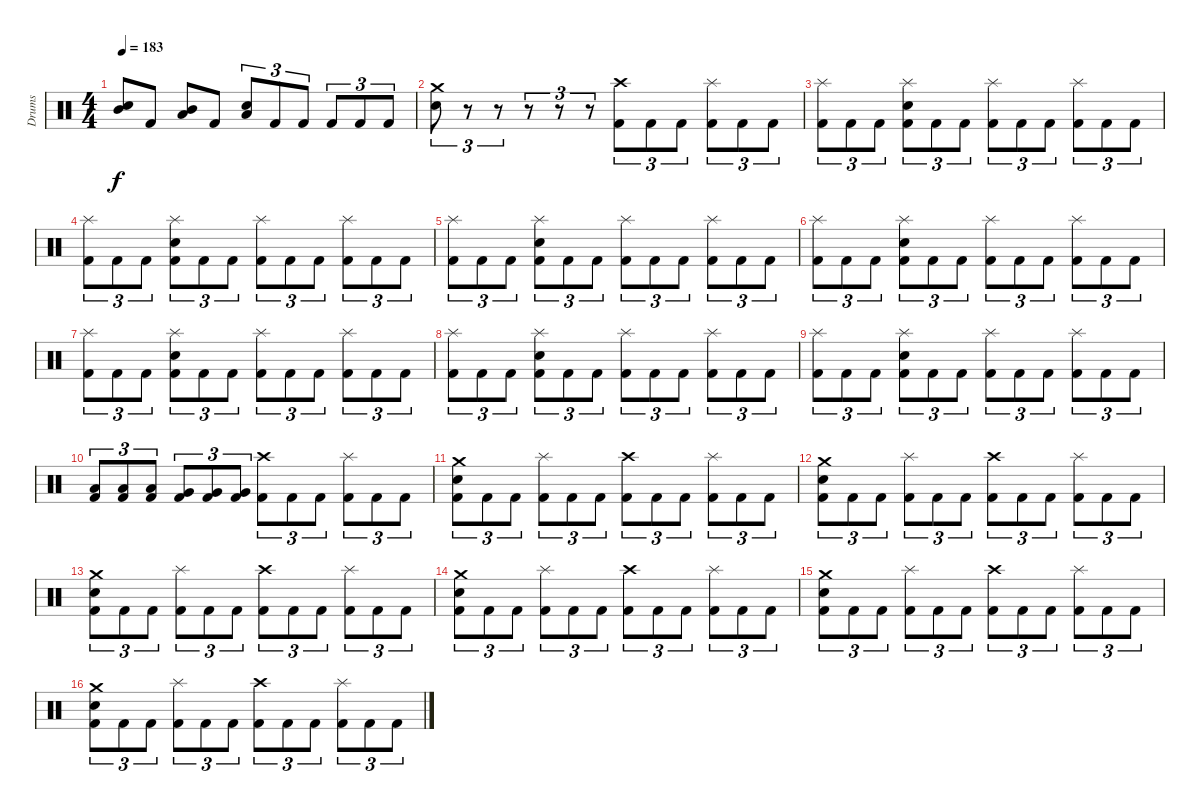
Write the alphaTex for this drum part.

\track ("Drums" "Drums") {instrument percussion}
\staff {score}
\articulation defaults
\ts (4 4)
\tempo 183
\clef neutral
\ks c
("Electric Snare (hit)" "Mid Tom (hit)").8{dy f} "Kick (hit) 2".8 ("Mid Tom (hit)" "Low Tom (hit)").8 "Kick (hit) 2".8 ("Electric Snare (hit)" "Low Tom (hit)").8{tu (3 2)} "Kick (hit) 2".8{tu (3 2)} "Kick (hit) 2".8{tu (3 2)} "Kick (hit) 2".8{tu (3 2)} "Kick (hit) 2".8{tu (3 2)} "Kick (hit) 2".8{tu (3 2)} |
("Electric Snare (hit)" "Crash medium (hit)").8{tu (3 2)} r.8{tu (3 2)} r.8{tu (3 2)} r.8{tu (3 2)} r.8{tu (3 2)} r.8{tu (3 2)} ("Kick (hit) 2" "Crash high (hit)").8{tu (3 2)} "Kick (hit) 2".8{tu (3 2)} "Kick (hit) 2".8{tu (3 2)} ("Kick (hit) 2" "Splash (hit)").8{tu (3 2)} "Kick (hit) 2".8{tu (3 2)} "Kick (hit) 2".8{tu (3 2)} |
("Kick (hit) 2" "Splash (hit)").8{tu (3 2)} "Kick (hit) 2".8{tu (3 2)} "Kick (hit) 2".8{tu (3 2)} ("Kick (hit) 2" "Electric Snare (hit)" "Splash (hit)").8{tu (3 2)} "Kick (hit) 2".8{tu (3 2)} "Kick (hit) 2".8{tu (3 2)} ("Kick (hit) 2" "Splash (hit)").8{tu (3 2)} "Kick (hit) 2".8{tu (3 2)} "Kick (hit) 2".8{tu (3 2)} ("Kick (hit) 2" "Splash (hit)").8{tu (3 2)} "Kick (hit) 2".8{tu (3 2)} "Kick (hit) 2".8{tu (3 2)} |
("Kick (hit) 2" "Splash (hit)").8{tu (3 2)} "Kick (hit) 2".8{tu (3 2)} "Kick (hit) 2".8{tu (3 2)} ("Kick (hit) 2" "Electric Snare (hit)" "Splash (hit)").8{tu (3 2)} "Kick (hit) 2".8{tu (3 2)} "Kick (hit) 2".8{tu (3 2)} ("Kick (hit) 2" "Splash (hit)").8{tu (3 2)} "Kick (hit) 2".8{tu (3 2)} "Kick (hit) 2".8{tu (3 2)} ("Kick (hit) 2" "Splash (hit)").8{tu (3 2)} "Kick (hit) 2".8{tu (3 2)} "Kick (hit) 2".8{tu (3 2)} |
("Kick (hit) 2" "Splash (hit)").8{tu (3 2)} "Kick (hit) 2".8{tu (3 2)} "Kick (hit) 2".8{tu (3 2)} ("Kick (hit) 2" "Electric Snare (hit)" "Splash (hit)").8{tu (3 2)} "Kick (hit) 2".8{tu (3 2)} "Kick (hit) 2".8{tu (3 2)} ("Kick (hit) 2" "Splash (hit)").8{tu (3 2)} "Kick (hit) 2".8{tu (3 2)} "Kick (hit) 2".8{tu (3 2)} ("Kick (hit) 2" "Splash (hit)").8{tu (3 2)} "Kick (hit) 2".8{tu (3 2)} "Kick (hit) 2".8{tu (3 2)} |
("Kick (hit) 2" "Splash (hit)").8{tu (3 2)} "Kick (hit) 2".8{tu (3 2)} "Kick (hit) 2".8{tu (3 2)} ("Kick (hit) 2" "Electric Snare (hit)" "Splash (hit)").8{tu (3 2)} "Kick (hit) 2".8{tu (3 2)} "Kick (hit) 2".8{tu (3 2)} ("Kick (hit) 2" "Splash (hit)").8{tu (3 2)} "Kick (hit) 2".8{tu (3 2)} "Kick (hit) 2".8{tu (3 2)} ("Kick (hit) 2" "Splash (hit)").8{tu (3 2)} "Kick (hit) 2".8{tu (3 2)} "Kick (hit) 2".8{tu (3 2)} |
("Kick (hit) 2" "Splash (hit)").8{tu (3 2)} "Kick (hit) 2".8{tu (3 2)} "Kick (hit) 2".8{tu (3 2)} ("Kick (hit) 2" "Electric Snare (hit)" "Splash (hit)").8{tu (3 2)} "Kick (hit) 2".8{tu (3 2)} "Kick (hit) 2".8{tu (3 2)} ("Kick (hit) 2" "Splash (hit)").8{tu (3 2)} "Kick (hit) 2".8{tu (3 2)} "Kick (hit) 2".8{tu (3 2)} ("Kick (hit) 2" "Splash (hit)").8{tu (3 2)} "Kick (hit) 2".8{tu (3 2)} "Kick (hit) 2".8{tu (3 2)} |
("Kick (hit) 2" "Splash (hit)").8{tu (3 2)} "Kick (hit) 2".8{tu (3 2)} "Kick (hit) 2".8{tu (3 2)} ("Kick (hit) 2" "Electric Snare (hit)" "Splash (hit)").8{tu (3 2)} "Kick (hit) 2".8{tu (3 2)} "Kick (hit) 2".8{tu (3 2)} ("Kick (hit) 2" "Splash (hit)").8{tu (3 2)} "Kick (hit) 2".8{tu (3 2)} "Kick (hit) 2".8{tu (3 2)} ("Kick (hit) 2" "Splash (hit)").8{tu (3 2)} "Kick (hit) 2".8{tu (3 2)} "Kick (hit) 2".8{tu (3 2)} |
("Kick (hit) 2" "Splash (hit)").8{tu (3 2)} "Kick (hit) 2".8{tu (3 2)} "Kick (hit) 2".8{tu (3 2)} ("Kick (hit) 2" "Electric Snare (hit)" "Splash (hit)").8{tu (3 2)} "Kick (hit) 2".8{tu (3 2)} "Kick (hit) 2".8{tu (3 2)} ("Kick (hit) 2" "Splash (hit)").8{tu (3 2)} "Kick (hit) 2".8{tu (3 2)} "Kick (hit) 2".8{tu (3 2)} ("Kick (hit) 2" "Splash (hit)").8{tu (3 2)} "Kick (hit) 2".8{tu (3 2)} "Kick (hit) 2".8{tu (3 2)} |
("Kick (hit) 2" "Low Tom (hit)").8{tu (3 2)} ("Kick (hit) 2" "Low Tom (hit)").8{tu (3 2)} ("Kick (hit) 2" "Low Tom (hit)").8{tu (3 2)} ("Kick (hit) 2" "Very Low Tom (hit)").8{tu (3 2)} ("Kick (hit) 2" "Very Low Tom (hit)").8{tu (3 2)} ("Kick (hit) 2" "Very Low Tom (hit)").8{tu (3 2)} ("Kick (hit) 2" "Crash high (hit)").8{tu (3 2)} "Kick (hit) 2".8{tu (3 2)} "Kick (hit) 2".8{tu (3 2)} ("Kick (hit) 2" "Splash (hit)").8{tu (3 2)} "Kick (hit) 2".8{tu (3 2)} "Kick (hit) 2".8{tu (3 2)} |
("Kick (hit) 2" "Electric Snare (hit)" "Crash medium (hit)").8{tu (3 2)} "Kick (hit) 2".8{tu (3 2)} "Kick (hit) 2".8{tu (3 2)} ("Kick (hit) 2" "Splash (hit)").8{tu (3 2)} "Kick (hit) 2".8{tu (3 2)} "Kick (hit) 2".8{tu (3 2)} ("Kick (hit) 2" "Crash high (hit)").8{tu (3 2)} "Kick (hit) 2".8{tu (3 2)} "Kick (hit) 2".8{tu (3 2)} ("Kick (hit) 2" "Splash (hit)").8{tu (3 2)} "Kick (hit) 2".8{tu (3 2)} "Kick (hit) 2".8{tu (3 2)} |
("Kick (hit) 2" "Electric Snare (hit)" "Crash medium (hit)").8{tu (3 2)} "Kick (hit) 2".8{tu (3 2)} "Kick (hit) 2".8{tu (3 2)} ("Kick (hit) 2" "Splash (hit)").8{tu (3 2)} "Kick (hit) 2".8{tu (3 2)} "Kick (hit) 2".8{tu (3 2)} ("Kick (hit) 2" "Crash high (hit)").8{tu (3 2)} "Kick (hit) 2".8{tu (3 2)} "Kick (hit) 2".8{tu (3 2)} ("Kick (hit) 2" "Splash (hit)").8{tu (3 2)} "Kick (hit) 2".8{tu (3 2)} "Kick (hit) 2".8{tu (3 2)} |
("Kick (hit) 2" "Electric Snare (hit)" "Crash medium (hit)").8{tu (3 2)} "Kick (hit) 2".8{tu (3 2)} "Kick (hit) 2".8{tu (3 2)} ("Kick (hit) 2" "Splash (hit)").8{tu (3 2)} "Kick (hit) 2".8{tu (3 2)} "Kick (hit) 2".8{tu (3 2)} ("Kick (hit) 2" "Crash high (hit)").8{tu (3 2)} "Kick (hit) 2".8{tu (3 2)} "Kick (hit) 2".8{tu (3 2)} ("Kick (hit) 2" "Splash (hit)").8{tu (3 2)} "Kick (hit) 2".8{tu (3 2)} "Kick (hit) 2".8{tu (3 2)} |
("Kick (hit) 2" "Electric Snare (hit)" "Crash medium (hit)").8{tu (3 2)} "Kick (hit) 2".8{tu (3 2)} "Kick (hit) 2".8{tu (3 2)} ("Kick (hit) 2" "Splash (hit)").8{tu (3 2)} "Kick (hit) 2".8{tu (3 2)} "Kick (hit) 2".8{tu (3 2)} ("Kick (hit) 2" "Crash high (hit)").8{tu (3 2)} "Kick (hit) 2".8{tu (3 2)} "Kick (hit) 2".8{tu (3 2)} ("Kick (hit) 2" "Splash (hit)").8{tu (3 2)} "Kick (hit) 2".8{tu (3 2)} "Kick (hit) 2".8{tu (3 2)} |
("Kick (hit) 2" "Electric Snare (hit)" "Crash medium (hit)").8{tu (3 2)} "Kick (hit) 2".8{tu (3 2)} "Kick (hit) 2".8{tu (3 2)} ("Kick (hit) 2" "Splash (hit)").8{tu (3 2)} "Kick (hit) 2".8{tu (3 2)} "Kick (hit) 2".8{tu (3 2)} ("Kick (hit) 2" "Crash high (hit)").8{tu (3 2)} "Kick (hit) 2".8{tu (3 2)} "Kick (hit) 2".8{tu (3 2)} ("Kick (hit) 2" "Splash (hit)").8{tu (3 2)} "Kick (hit) 2".8{tu (3 2)} "Kick (hit) 2".8{tu (3 2)} |
("Kick (hit) 2" "Electric Snare (hit)" "Crash medium (hit)").8{tu (3 2)} "Kick (hit) 2".8{tu (3 2)} "Kick (hit) 2".8{tu (3 2)} ("Kick (hit) 2" "Splash (hit)").8{tu (3 2)} "Kick (hit) 2".8{tu (3 2)} "Kick (hit) 2".8{tu (3 2)} ("Kick (hit) 2" "Crash high (hit)").8{tu (3 2)} "Kick (hit) 2".8{tu (3 2)} "Kick (hit) 2".8{tu (3 2)} ("Kick (hit) 2" "Splash (hit)").8{tu (3 2)} "Kick (hit) 2".8{tu (3 2)} "Kick (hit) 2".8{tu (3 2)}
